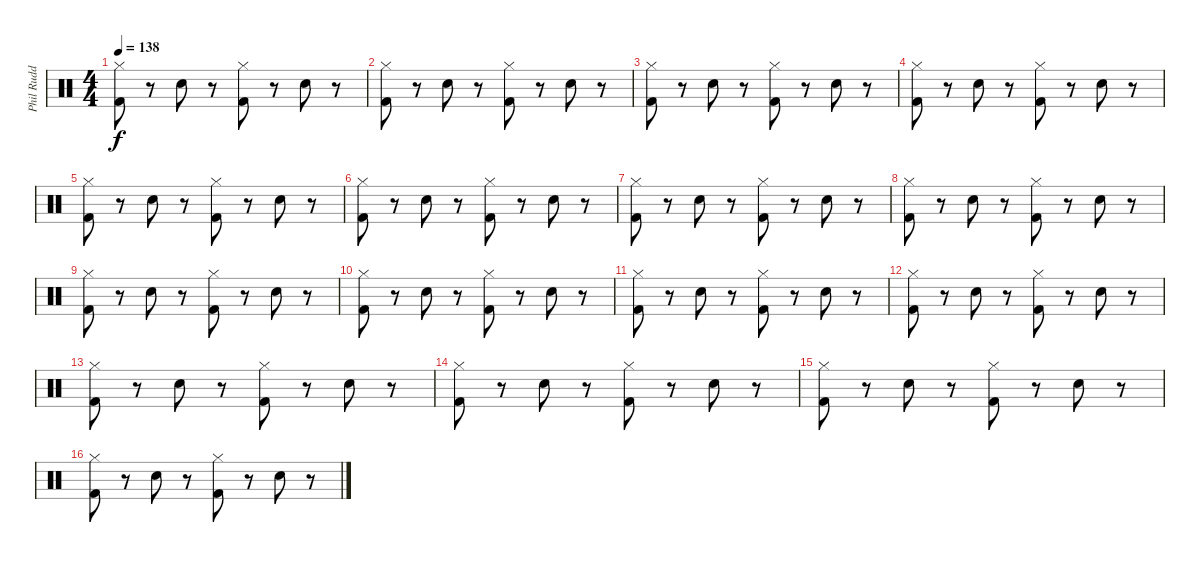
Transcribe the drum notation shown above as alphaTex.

\track ("Phil Rudd" "Phil Rudd") {instrument percussion}
\staff {score}
\articulation defaults
\ts (4 4)
\tempo 138
\clef neutral
\ks c
("Hi-Hat (closed)" "Kick (hit) 2").8{dy f} r.8 "Snare (hit) 2".8 r.8 ("Hi-Hat (closed)" "Kick (hit) 2").8 r.8 "Snare (hit) 2".8 r.8 |
("Hi-Hat (closed)" "Kick (hit) 2").8 r.8 "Snare (hit) 2".8 r.8 ("Hi-Hat (closed)" "Kick (hit) 2").8 r.8 "Snare (hit) 2".8 r.8 |
("Hi-Hat (closed)" "Kick (hit) 2").8 r.8 "Snare (hit) 2".8 r.8 ("Hi-Hat (closed)" "Kick (hit) 2").8 r.8 "Snare (hit) 2".8 r.8 |
("Hi-Hat (closed)" "Kick (hit) 2").8 r.8 "Snare (hit) 2".8 r.8 ("Hi-Hat (closed)" "Kick (hit) 2").8 r.8 "Snare (hit) 2".8 r.8 |
("Hi-Hat (closed)" "Kick (hit) 2").8 r.8 "Snare (hit) 2".8 r.8 ("Hi-Hat (closed)" "Kick (hit) 2").8 r.8 "Snare (hit) 2".8 r.8 |
("Hi-Hat (closed)" "Kick (hit) 2").8 r.8 "Snare (hit) 2".8 r.8 ("Hi-Hat (closed)" "Kick (hit) 2").8 r.8 "Snare (hit) 2".8 r.8 |
("Hi-Hat (closed)" "Kick (hit) 2").8 r.8 "Snare (hit) 2".8 r.8 ("Hi-Hat (closed)" "Kick (hit) 2").8 r.8 "Snare (hit) 2".8 r.8 |
("Hi-Hat (closed)" "Kick (hit) 2").8 r.8 "Snare (hit) 2".8 r.8 ("Hi-Hat (closed)" "Kick (hit) 2").8 r.8 "Snare (hit) 2".8 r.8 |
("Hi-Hat (closed)" "Kick (hit) 2").8 r.8 "Snare (hit) 2".8 r.8 ("Hi-Hat (closed)" "Kick (hit) 2").8 r.8 "Snare (hit) 2".8 r.8 |
("Hi-Hat (closed)" "Kick (hit) 2").8 r.8 "Snare (hit) 2".8 r.8 ("Hi-Hat (closed)" "Kick (hit) 2").8 r.8 "Snare (hit) 2".8 r.8 |
("Hi-Hat (closed)" "Kick (hit) 2").8 r.8 "Snare (hit) 2".8 r.8 ("Hi-Hat (closed)" "Kick (hit) 2").8 r.8 "Snare (hit) 2".8 r.8 |
("Hi-Hat (closed)" "Kick (hit) 2").8 r.8 "Snare (hit) 2".8 r.8 ("Hi-Hat (closed)" "Kick (hit) 2").8 r.8 "Snare (hit) 2".8 r.8 |
("Hi-Hat (closed)" "Kick (hit) 2").8 r.8 "Snare (hit) 2".8 r.8 ("Hi-Hat (closed)" "Kick (hit) 2").8 r.8 "Snare (hit) 2".8 r.8 |
("Hi-Hat (closed)" "Kick (hit) 2").8 r.8 "Snare (hit) 2".8 r.8 ("Hi-Hat (closed)" "Kick (hit) 2").8 r.8 "Snare (hit) 2".8 r.8 |
("Hi-Hat (closed)" "Kick (hit) 2").8 r.8 "Snare (hit) 2".8 r.8 ("Hi-Hat (closed)" "Kick (hit) 2").8 r.8 "Snare (hit) 2".8 r.8 |
("Hi-Hat (closed)" "Kick (hit) 2").8 r.8 "Snare (hit) 2".8 r.8 ("Hi-Hat (closed)" "Kick (hit) 2").8 r.8 "Snare (hit) 2".8 r.8
